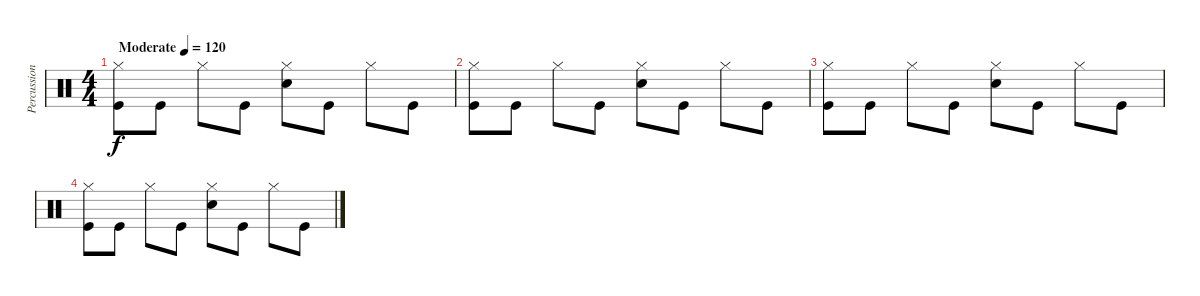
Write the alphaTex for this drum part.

\track ("Percussion" "Percussion") {instrument percussion}
\staff {score}
\articulation defaults
\ts (4 4)
\tempo (120 "Moderate")
\clef neutral
\ks c
("Hi-Hat (closed)" "Kick (hit)").8{dy f} "Kick (hit)".8 "Hi-Hat (closed)".8 "Kick (hit)".8 ("Hi-Hat (closed)" "Snare (hit) 2").8 "Kick (hit)".8 "Hi-Hat (closed)".8 "Kick (hit)".8 |
("Hi-Hat (closed)" "Kick (hit)").8 "Kick (hit)".8 "Hi-Hat (closed)".8 "Kick (hit)".8 ("Hi-Hat (closed)" "Snare (hit) 2").8 "Kick (hit)".8 "Hi-Hat (closed)".8 "Kick (hit)".8 |
("Hi-Hat (closed)" "Kick (hit)").8 "Kick (hit)".8 "Hi-Hat (closed)".8 "Kick (hit)".8 ("Hi-Hat (closed)" "Snare (hit) 2").8 "Kick (hit)".8 "Hi-Hat (closed)".8 "Kick (hit)".8 |
("Hi-Hat (closed)" "Kick (hit)").8 "Kick (hit)".8 "Hi-Hat (closed)".8 "Kick (hit)".8 ("Hi-Hat (closed)" "Snare (hit) 2").8 "Kick (hit)".8 "Hi-Hat (closed)".8 "Kick (hit)".8
